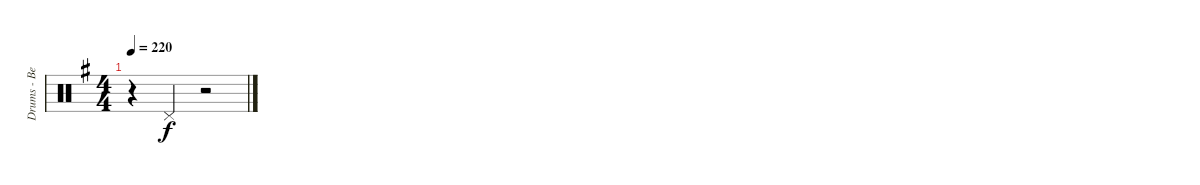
\track ("Drums - Ben Johnston" "Drums - Be") {instrument percussion}
\staff {score}
\articulation defaults
\ts (4 4)
\tempo 220
\clef neutral
\ks eminor
r.4{dy f} "Pedal Hi-Hat (hit)".4 r.2
